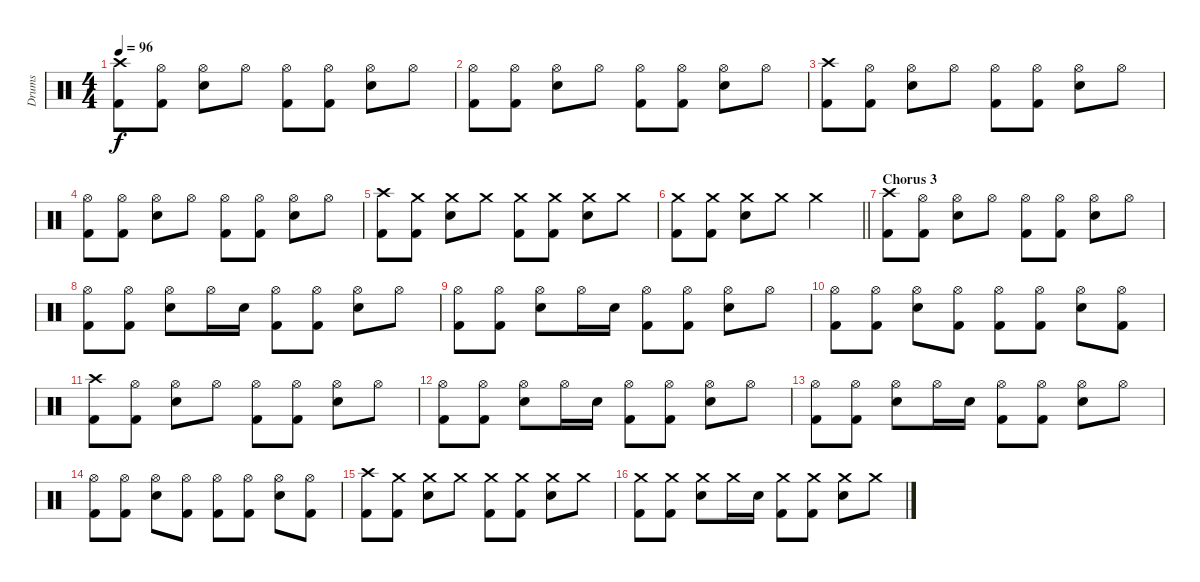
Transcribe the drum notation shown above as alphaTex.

\track ("Drums" "Drums") {instrument percussion}
\staff {score}
\articulation defaults
\ts (4 4)
\tempo 96
\clef neutral
\ks c
("Crash high (hit)" "Kick (hit) 2").8{dy f} ("Hi-Hat (open)" "Kick (hit) 2").8 ("Hi-Hat (open)" "Electric Snare (hit)").8 "Hi-Hat (open)".8 ("Hi-Hat (open)" "Kick (hit) 2").8 ("Hi-Hat (open)" "Kick (hit) 2").8 ("Hi-Hat (open)" "Electric Snare (hit)").8 "Hi-Hat (open)".8 |
("Hi-Hat (open)" "Kick (hit) 2").8 ("Hi-Hat (open)" "Kick (hit) 2").8 ("Hi-Hat (open)" "Electric Snare (hit)").8 "Hi-Hat (open)".8 ("Hi-Hat (open)" "Kick (hit) 2").8 ("Hi-Hat (open)" "Kick (hit) 2").8 ("Hi-Hat (open)" "Electric Snare (hit)").8 "Hi-Hat (open)".8 |
("Crash high (hit)" "Kick (hit) 2").8 ("Hi-Hat (open)" "Kick (hit) 2").8 ("Hi-Hat (open)" "Electric Snare (hit)").8 "Hi-Hat (open)".8 ("Hi-Hat (open)" "Kick (hit) 2").8 ("Hi-Hat (open)" "Kick (hit) 2").8 ("Hi-Hat (open)" "Electric Snare (hit)").8 "Hi-Hat (open)".8 |
("Hi-Hat (open)" "Kick (hit) 2").8 ("Hi-Hat (open)" "Kick (hit) 2").8 ("Hi-Hat (open)" "Electric Snare (hit)").8 "Hi-Hat (open)".8 ("Hi-Hat (open)" "Kick (hit) 2").8 ("Hi-Hat (open)" "Kick (hit) 2").8 ("Hi-Hat (open)" "Electric Snare (hit)").8 "Hi-Hat (open)".8 |
("Crash high (hit)" "Kick (hit) 2").8 ("Crash medium (hit)" "Kick (hit) 2").8 ("Crash medium (hit)" "Electric Snare (hit)").8 "Crash medium (hit)".8 ("Crash medium (hit)" "Kick (hit) 2").8 ("Crash medium (hit)" "Kick (hit) 2").8 ("Crash medium (hit)" "Electric Snare (hit)").8 "Crash medium (hit)".8 |
\barLineRight lightlight
("Crash medium (hit)" "Kick (hit) 2").8 ("Crash medium (hit)" "Kick (hit) 2").8 ("Crash medium (hit)" "Electric Snare (hit)").8 "Crash medium (hit)".8 "Crash medium (hit)".2 |
\section ("" "Chorus 3")
("Crash high (hit)" "Kick (hit) 2").8 ("Hi-Hat (open)" "Kick (hit) 2").8 ("Hi-Hat (open)" "Electric Snare (hit)").8 "Hi-Hat (open)".8 ("Hi-Hat (open)" "Kick (hit) 2").8 ("Hi-Hat (open)" "Kick (hit) 2").8 ("Hi-Hat (open)" "Electric Snare (hit)").8 "Hi-Hat (open)".8 |
("Hi-Hat (open)" "Kick (hit) 2").8 ("Hi-Hat (open)" "Kick (hit) 2").8 ("Hi-Hat (open)" "Electric Snare (hit)").8 "Hi-Hat (open)".16 "Electric Snare (hit)".16 ("Hi-Hat (open)" "Kick (hit) 2").8 ("Hi-Hat (open)" "Kick (hit) 2").8 ("Hi-Hat (open)" "Electric Snare (hit)").8 "Hi-Hat (open)".8 |
("Hi-Hat (open)" "Kick (hit) 2").8 ("Hi-Hat (open)" "Kick (hit) 2").8 ("Hi-Hat (open)" "Electric Snare (hit)").8 "Hi-Hat (open)".16 "Electric Snare (hit)".16 ("Hi-Hat (open)" "Kick (hit) 2").8 ("Hi-Hat (open)" "Kick (hit) 2").8 ("Hi-Hat (open)" "Electric Snare (hit)").8 "Hi-Hat (open)".8 |
("Hi-Hat (open)" "Kick (hit) 2").8 ("Hi-Hat (open)" "Kick (hit) 2").8 ("Hi-Hat (open)" "Electric Snare (hit)").8 ("Hi-Hat (open)" "Kick (hit) 2").8 ("Hi-Hat (open)" "Kick (hit) 2").8 ("Hi-Hat (open)" "Kick (hit) 2").8 ("Hi-Hat (open)" "Electric Snare (hit)").8 ("Hi-Hat (open)" "Kick (hit) 2").8 |
("Crash high (hit)" "Kick (hit) 2").8 ("Hi-Hat (open)" "Kick (hit) 2").8 ("Hi-Hat (open)" "Electric Snare (hit)").8 "Hi-Hat (open)".8 ("Hi-Hat (open)" "Kick (hit) 2").8 ("Hi-Hat (open)" "Kick (hit) 2").8 ("Hi-Hat (open)" "Electric Snare (hit)").8 "Hi-Hat (open)".8 |
("Hi-Hat (open)" "Kick (hit) 2").8 ("Hi-Hat (open)" "Kick (hit) 2").8 ("Hi-Hat (open)" "Electric Snare (hit)").8 "Hi-Hat (open)".16 "Electric Snare (hit)".16 ("Hi-Hat (open)" "Kick (hit) 2").8 ("Hi-Hat (open)" "Kick (hit) 2").8 ("Hi-Hat (open)" "Electric Snare (hit)").8 "Hi-Hat (open)".8 |
("Hi-Hat (open)" "Kick (hit) 2").8 ("Hi-Hat (open)" "Kick (hit) 2").8 ("Hi-Hat (open)" "Electric Snare (hit)").8 "Hi-Hat (open)".16 "Electric Snare (hit)".16 ("Hi-Hat (open)" "Kick (hit) 2").8 ("Hi-Hat (open)" "Kick (hit) 2").8 ("Hi-Hat (open)" "Electric Snare (hit)").8 "Hi-Hat (open)".8 |
("Hi-Hat (open)" "Kick (hit) 2").8 ("Hi-Hat (open)" "Kick (hit) 2").8 ("Hi-Hat (open)" "Electric Snare (hit)").8 ("Hi-Hat (open)" "Kick (hit) 2").8 ("Hi-Hat (open)" "Kick (hit) 2").8 ("Hi-Hat (open)" "Kick (hit) 2").8 ("Hi-Hat (open)" "Electric Snare (hit)").8 ("Hi-Hat (open)" "Kick (hit) 2").8 |
("Crash high (hit)" "Kick (hit) 2").8 ("Crash medium (hit)" "Kick (hit) 2").8 ("Crash medium (hit)" "Electric Snare (hit)").8 "Crash medium (hit)".8 ("Crash medium (hit)" "Kick (hit) 2").8 ("Crash medium (hit)" "Kick (hit) 2").8 ("Crash medium (hit)" "Electric Snare (hit)").8 "Crash medium (hit)".8 |
("Crash medium (hit)" "Kick (hit) 2").8 ("Crash medium (hit)" "Kick (hit) 2").8 ("Crash medium (hit)" "Electric Snare (hit)").8 "Crash medium (hit)".16 "Electric Snare (hit)".16 ("Crash medium (hit)" "Kick (hit) 2").8 ("Crash medium (hit)" "Kick (hit) 2").8 ("Crash medium (hit)" "Electric Snare (hit)").8 "Crash medium (hit)".8
